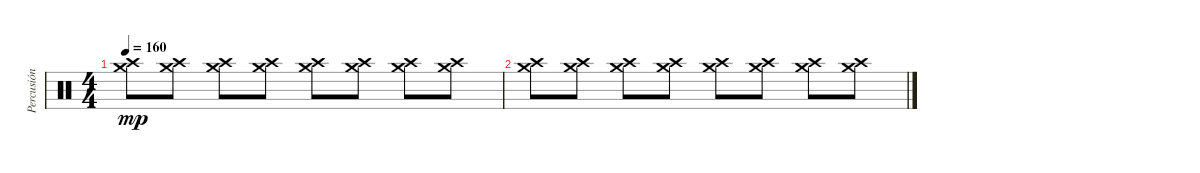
\track ("Percusión" "Percusión") {instrument percussion}
\staff {score}
\articulation defaults
\ts (4 4)
\tempo 160
\clef neutral
\ks c
("Crash high (hit)" "Crash medium (hit)").8{dy mp balance 0} ("Crash high (hit)" "Crash medium (hit)").8 ("Crash high (hit)" "Crash medium (hit)").8 ("Crash high (hit)" "Crash medium (hit)").8 ("Crash high (hit)" "Crash medium (hit)").8 ("Crash high (hit)" "Crash medium (hit)").8 ("Crash high (hit)" "Crash medium (hit)").8 ("Crash high (hit)" "Crash medium (hit)").8 |
("Crash high (hit)" "Crash medium (hit)").8{balance 8} ("Crash high (hit)" "Crash medium (hit)").8 ("Crash high (hit)" "Crash medium (hit)").8 ("Crash high (hit)" "Crash medium (hit)").8 ("Crash high (hit)" "Crash medium (hit)").8 ("Crash high (hit)" "Crash medium (hit)").8 ("Crash high (hit)" "Crash medium (hit)").8 ("Crash high (hit)" "Crash medium (hit)").8
